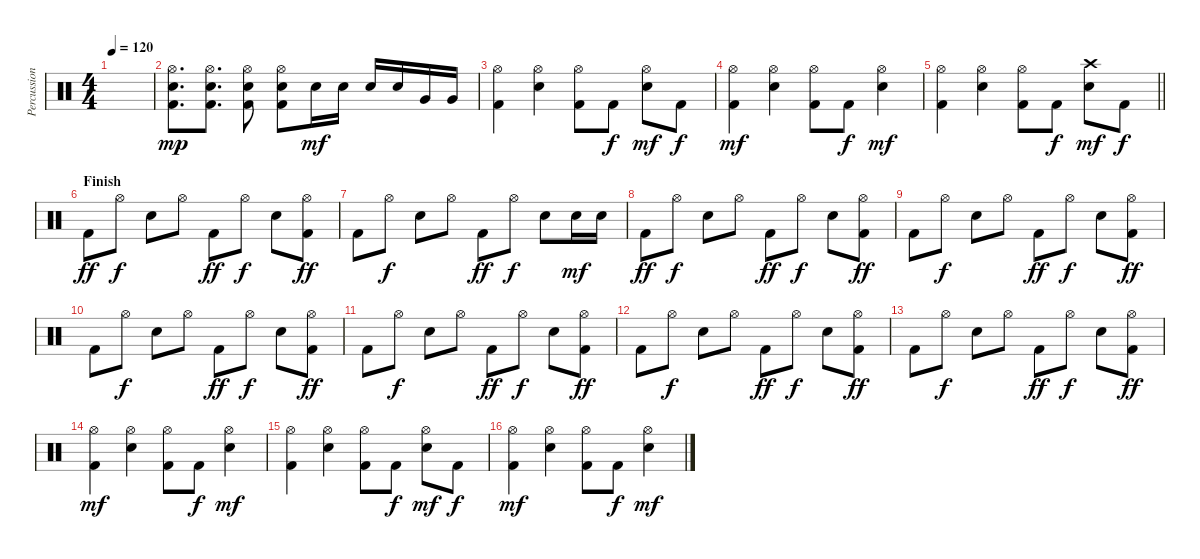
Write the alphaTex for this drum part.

\track ("Percussion" "Percussion") {instrument percussion}
\staff {score}
\articulation defaults
\ts (4 4)
\tempo 120
\clef neutral
\ks c
|
("Hi-Hat (open)" "Electric Snare (hit)" "Kick (hit) 2").8{d dy mp} ("Hi-Hat (open)" "Electric Snare (hit)" "Kick (hit) 2").8{d} ("Hi-Hat (open)" "Electric Snare (hit)" "Kick (hit) 2").8 ("Hi-Hat (open)" "Electric Snare (hit)" "Kick (hit) 2").8 "Electric Snare (hit)".16{dy mf} "Electric Snare (hit)".16 "Electric Snare (hit)".16 "Electric Snare (hit)".16 "Very Low Tom (hit)".16 "Very Low Tom (hit)".16 |
("Hi-Hat (open)" "Kick (hit) 2").4 ("Hi-Hat (open)" "Electric Snare (hit)").4 ("Hi-Hat (open)" "Kick (hit) 2").8 "Kick (hit) 2".8{dy f} ("Hi-Hat (open)" "Electric Snare (hit)").8{dy mf} "Kick (hit) 2".8{dy f} |
("Hi-Hat (open)" "Kick (hit) 2").4{dy mf} ("Hi-Hat (open)" "Electric Snare (hit)").4 ("Hi-Hat (open)" "Kick (hit) 2").8 "Kick (hit) 2".8{dy f} ("Hi-Hat (open)" "Electric Snare (hit)").4{dy mf} |
\barLineRight lightlight
("Hi-Hat (open)" "Kick (hit) 2").4 ("Hi-Hat (open)" "Electric Snare (hit)").4 ("Hi-Hat (open)" "Kick (hit) 2").8 "Kick (hit) 2".8{dy f} ("Crash high (hit)" "Electric Snare (hit)").8{dy mf} "Kick (hit) 2".8{dy f} |
\section ("" "Finish")
"Kick (hit) 2".8{dy ff} "Hi-Hat (open)".8{dy f} "Electric Snare (hit)".8 "Hi-Hat (open)".8 "Kick (hit) 2".8{dy ff} "Hi-Hat (open)".8{dy f} "Electric Snare (hit)".8 ("Hi-Hat (open)" "Kick (hit) 2").8{dy ff} |
"Kick (hit) 2".8 "Hi-Hat (open)".8{dy f} "Electric Snare (hit)".8 "Hi-Hat (open)".8 "Kick (hit) 2".8{dy ff} "Hi-Hat (open)".8{dy f} "Electric Snare (hit)".8 "Electric Snare (hit)".16{dy mf} "Electric Snare (hit)".16 |
"Kick (hit) 2".8{dy ff} "Hi-Hat (open)".8{dy f} "Electric Snare (hit)".8 "Hi-Hat (open)".8 "Kick (hit) 2".8{dy ff} "Hi-Hat (open)".8{dy f} "Electric Snare (hit)".8 ("Hi-Hat (open)" "Kick (hit) 2").8{dy ff} |
"Kick (hit) 2".8 "Hi-Hat (open)".8{dy f} "Electric Snare (hit)".8 "Hi-Hat (open)".8 "Kick (hit) 2".8{dy ff} "Hi-Hat (open)".8{dy f} "Electric Snare (hit)".8 ("Hi-Hat (open)" "Kick (hit) 2").8{dy ff} |
"Kick (hit) 2".8 "Hi-Hat (open)".8{dy f} "Electric Snare (hit)".8 "Hi-Hat (open)".8 "Kick (hit) 2".8{dy ff} "Hi-Hat (open)".8{dy f} "Electric Snare (hit)".8 ("Hi-Hat (open)" "Kick (hit) 2").8{dy ff} |
"Kick (hit) 2".8 "Hi-Hat (open)".8{dy f} "Electric Snare (hit)".8 "Hi-Hat (open)".8 "Kick (hit) 2".8{dy ff} "Hi-Hat (open)".8{dy f} "Electric Snare (hit)".8 ("Hi-Hat (open)" "Kick (hit) 2").8{dy ff} |
"Kick (hit) 2".8 "Hi-Hat (open)".8{dy f} "Electric Snare (hit)".8 "Hi-Hat (open)".8 "Kick (hit) 2".8{dy ff} "Hi-Hat (open)".8{dy f} "Electric Snare (hit)".8 ("Hi-Hat (open)" "Kick (hit) 2").8{dy ff} |
"Kick (hit) 2".8 "Hi-Hat (open)".8{dy f} "Electric Snare (hit)".8 "Hi-Hat (open)".8 "Kick (hit) 2".8{dy ff} "Hi-Hat (open)".8{dy f} "Electric Snare (hit)".8 ("Hi-Hat (open)" "Kick (hit) 2").8{dy ff} |
("Hi-Hat (open)" "Kick (hit) 2").4{dy mf} ("Hi-Hat (open)" "Electric Snare (hit)").4 ("Hi-Hat (open)" "Kick (hit) 2").8 "Kick (hit) 2".8{dy f} ("Hi-Hat (open)" "Electric Snare (hit)").4{dy mf} |
("Hi-Hat (open)" "Kick (hit) 2").4 ("Hi-Hat (open)" "Electric Snare (hit)").4 ("Hi-Hat (open)" "Kick (hit) 2").8 "Kick (hit) 2".8{dy f} ("Hi-Hat (open)" "Electric Snare (hit)").8{dy mf} "Kick (hit) 2".8{dy f} |
("Hi-Hat (open)" "Kick (hit) 2").4{dy mf} ("Hi-Hat (open)" "Electric Snare (hit)").4 ("Hi-Hat (open)" "Kick (hit) 2").8 "Kick (hit) 2".8{dy f} ("Hi-Hat (open)" "Electric Snare (hit)").4{dy mf}
